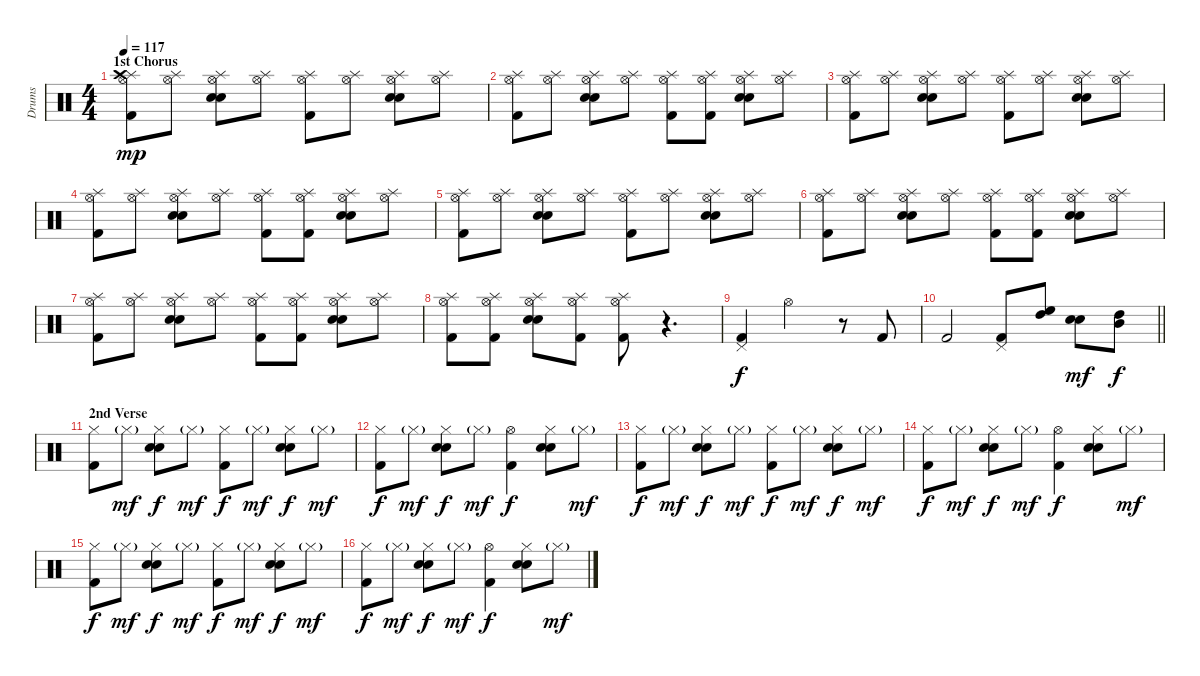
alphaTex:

\track ("Drums" "Drums") {instrument percussion}
\staff {score}
\articulation defaults
\ts (4 4)
\section ("" "1st Chorus")
\tempo 117
\clef neutral
\ks c
("Splash (hit)" "Crash high (hit)" "Hi-Hat (open)" "Kick (hit) 2").8{dy mp} ("Splash (hit)" "Hi-Hat (open)").8 ("Splash (hit)" "Hi-Hat (open)" "Snare (hit) 2" "Snare (hit) 2").8 ("Splash (hit)" "Hi-Hat (open)").8 ("Splash (hit)" "Hi-Hat (open)" "Kick (hit) 2").8 ("Splash (hit)" "Hi-Hat (open)").8 ("Splash (hit)" "Hi-Hat (open)" "Snare (hit) 2" "Snare (hit) 2").8 ("Splash (hit)" "Hi-Hat (open)").8 |
("Splash (hit)" "Hi-Hat (open)" "Kick (hit) 2").8 ("Splash (hit)" "Hi-Hat (open)").8 ("Splash (hit)" "Hi-Hat (open)" "Snare (hit) 2" "Snare (hit) 2").8 ("Splash (hit)" "Hi-Hat (open)").8 ("Splash (hit)" "Hi-Hat (open)" "Kick (hit) 2").8 ("Splash (hit)" "Hi-Hat (open)" "Kick (hit) 2").8 ("Splash (hit)" "Hi-Hat (open)" "Snare (hit) 2" "Snare (hit) 2").8 ("Splash (hit)" "Hi-Hat (open)").8 |
("Splash (hit)" "Hi-Hat (open)" "Kick (hit) 2").8 ("Splash (hit)" "Hi-Hat (open)").8 ("Splash (hit)" "Hi-Hat (open)" "Snare (hit) 2" "Snare (hit) 2").8 ("Splash (hit)" "Hi-Hat (open)").8 ("Splash (hit)" "Hi-Hat (open)" "Kick (hit) 2").8 ("Splash (hit)" "Hi-Hat (open)").8 ("Splash (hit)" "Hi-Hat (open)" "Snare (hit) 2" "Snare (hit) 2").8 ("Splash (hit)" "Hi-Hat (open)").8 |
("Splash (hit)" "Hi-Hat (open)" "Kick (hit) 2").8 ("Splash (hit)" "Hi-Hat (open)").8 ("Splash (hit)" "Hi-Hat (open)" "Snare (hit) 2" "Snare (hit) 2").8 ("Splash (hit)" "Hi-Hat (open)").8 ("Splash (hit)" "Hi-Hat (open)" "Kick (hit) 2").8 ("Splash (hit)" "Hi-Hat (open)" "Kick (hit) 2").8 ("Splash (hit)" "Hi-Hat (open)" "Snare (hit) 2" "Snare (hit) 2").8 ("Splash (hit)" "Hi-Hat (open)").8 |
("Splash (hit)" "Hi-Hat (open)" "Kick (hit) 2").8 ("Splash (hit)" "Hi-Hat (open)").8 ("Splash (hit)" "Hi-Hat (open)" "Snare (hit) 2" "Snare (hit) 2").8 ("Splash (hit)" "Hi-Hat (open)").8 ("Splash (hit)" "Hi-Hat (open)" "Kick (hit) 2").8 ("Splash (hit)" "Hi-Hat (open)").8 ("Splash (hit)" "Hi-Hat (open)" "Snare (hit) 2" "Snare (hit) 2").8 ("Splash (hit)" "Hi-Hat (open)").8 |
("Splash (hit)" "Hi-Hat (open)" "Kick (hit) 2").8 ("Splash (hit)" "Hi-Hat (open)").8 ("Splash (hit)" "Hi-Hat (open)" "Snare (hit) 2" "Snare (hit) 2").8 ("Splash (hit)" "Hi-Hat (open)").8 ("Splash (hit)" "Hi-Hat (open)" "Kick (hit) 2").8 ("Splash (hit)" "Hi-Hat (open)" "Kick (hit) 2").8 ("Splash (hit)" "Hi-Hat (open)" "Snare (hit) 2" "Snare (hit) 2").8 ("Splash (hit)" "Hi-Hat (open)").8 |
("Splash (hit)" "Hi-Hat (open)" "Kick (hit) 2").8 ("Splash (hit)" "Hi-Hat (open)").8 ("Splash (hit)" "Hi-Hat (open)" "Snare (hit) 2" "Snare (hit) 2").8 ("Splash (hit)" "Hi-Hat (open)").8 ("Splash (hit)" "Hi-Hat (open)" "Kick (hit) 2").8 ("Splash (hit)" "Hi-Hat (open)" "Kick (hit) 2").8 ("Splash (hit)" "Hi-Hat (open)" "Snare (hit) 2" "Snare (hit) 2").8 ("Splash (hit)" "Hi-Hat (open)").8 |
("Splash (hit)" "Hi-Hat (open)" "Kick (hit) 2").8 ("Splash (hit)" "Hi-Hat (open)" "Kick (hit) 2").8 ("Splash (hit)" "Hi-Hat (open)" "Snare (hit) 2" "Snare (hit) 2").8 ("Splash (hit)" "Hi-Hat (open)" "Kick (hit) 2").8 ("Splash (hit)" "Hi-Hat (open)" "Kick (hit) 2").8 r.4{d} |
("Pedal Hi-Hat (hit)" "Kick (hit) 2").4{dy f} "Hi-Hat (open)".2 r.8 "Kick (hit) 2".8 |
\barLineRight lightlight "Kick (hit) 2".2
("Pedal Hi-Hat (hit)" "Kick (hit) 2").8 ("High Floor Tom (hit)" "High Tom (hit)").8 ("Snare (hit) 2" "Snare (hit) 2").8{dy mf} ("Mid Tom (hit)" "High Tom (hit)").8{dy f} |
\section ("" "2nd Verse")
("Hi-Hat (closed)" "Kick (hit) 2").8 "Hi-Hat (closed)"{g}.8{dy mf} ("Hi-Hat (closed)" "Snare (hit) 2" "Snare (hit) 2").8{dy f} "Hi-Hat (closed)"{g}.8{dy mf} ("Hi-Hat (closed)" "Kick (hit) 2").8{dy f} "Hi-Hat (closed)"{g}.8{dy mf} ("Hi-Hat (closed)" "Snare (hit) 2" "Snare (hit) 2").8{dy f} "Hi-Hat (closed)"{g}.8{dy mf} |
("Hi-Hat (closed)" "Kick (hit) 2").8{dy f} "Hi-Hat (closed)"{g}.8{dy mf} ("Hi-Hat (closed)" "Snare (hit) 2" "Snare (hit) 2").8{dy f} "Hi-Hat (closed)"{g}.8{dy mf} ("Hi-Hat (open)" "Kick (hit) 2").4{dy f} ("Hi-Hat (closed)" "Snare (hit) 2" "Snare (hit) 2").8 "Hi-Hat (closed)"{g}.8{dy mf} |
("Hi-Hat (closed)" "Kick (hit) 2").8{dy f} "Hi-Hat (closed)"{g}.8{dy mf} ("Hi-Hat (closed)" "Snare (hit) 2" "Snare (hit) 2").8{dy f} "Hi-Hat (closed)"{g}.8{dy mf} ("Hi-Hat (closed)" "Kick (hit) 2").8{dy f} "Hi-Hat (closed)"{g}.8{dy mf} ("Hi-Hat (closed)" "Snare (hit) 2" "Snare (hit) 2").8{dy f} "Hi-Hat (closed)"{g}.8{dy mf} |
("Hi-Hat (closed)" "Kick (hit) 2").8{dy f} "Hi-Hat (closed)"{g}.8{dy mf} ("Hi-Hat (closed)" "Snare (hit) 2" "Snare (hit) 2").8{dy f} "Hi-Hat (closed)"{g}.8{dy mf} ("Hi-Hat (open)" "Kick (hit) 2").4{dy f} ("Hi-Hat (closed)" "Snare (hit) 2" "Snare (hit) 2").8 "Hi-Hat (closed)"{g}.8{dy mf} |
("Hi-Hat (closed)" "Kick (hit) 2").8{dy f} "Hi-Hat (closed)"{g}.8{dy mf} ("Hi-Hat (closed)" "Snare (hit) 2" "Snare (hit) 2").8{dy f} "Hi-Hat (closed)"{g}.8{dy mf} ("Hi-Hat (closed)" "Kick (hit) 2").8{dy f} "Hi-Hat (closed)"{g}.8{dy mf} ("Hi-Hat (closed)" "Snare (hit) 2" "Snare (hit) 2").8{dy f} "Hi-Hat (closed)"{g}.8{dy mf} |
("Hi-Hat (closed)" "Kick (hit) 2").8{dy f} "Hi-Hat (closed)"{g}.8{dy mf} ("Hi-Hat (closed)" "Snare (hit) 2" "Snare (hit) 2").8{dy f} "Hi-Hat (closed)"{g}.8{dy mf} ("Hi-Hat (open)" "Kick (hit) 2").4{dy f} ("Hi-Hat (closed)" "Snare (hit) 2" "Snare (hit) 2").8 "Hi-Hat (closed)"{g}.8{dy mf}
